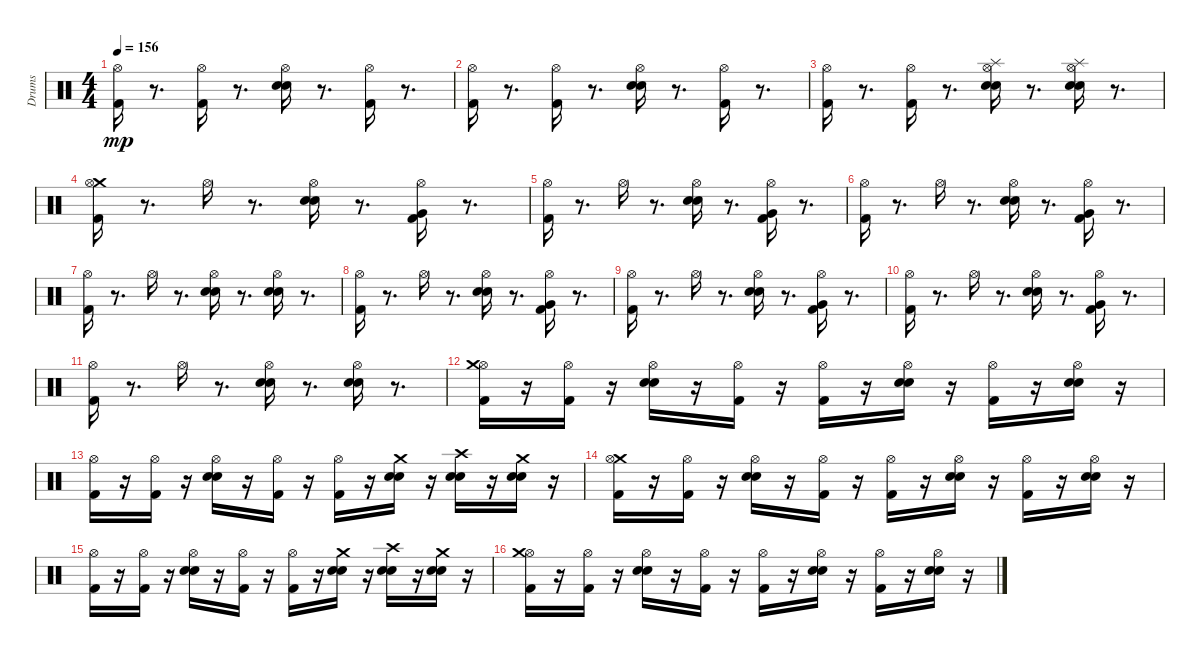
\track ("Drums" "Drums") {instrument percussion}
\staff {score}
\articulation defaults
\ts (4 4)
\tempo 156
\clef neutral
\ks c
("Hi-Hat (open)" "Kick (hit) 2").16{dy mp} r.8{d} ("Hi-Hat (open)" "Kick (hit) 2").16 r.8{d} ("Snare (hit) 2" "Electric Snare (hit)" "Hi-Hat (open)").16 r.8{d} ("Hi-Hat (open)" "Kick (hit) 2").16 r.8{d} |
("Kick (hit) 2" "Hi-Hat (open)").16 r.8{d} ("Hi-Hat (open)" "Kick (hit) 2").16 r.8{d} ("Electric Snare (hit)" "Hi-Hat (open)" "Snare (hit) 2").16 r.8{d} ("Hi-Hat (open)" "Kick (hit) 2").16 r.8{d} |
("Hi-Hat (open)" "Kick (hit) 2").16 r.8{d} ("Kick (hit) 2" "Hi-Hat (open)").16 r.8{d} ("Splash (hit)" "Hi-Hat (open)" "Snare (hit) 2" "Electric Snare (hit)").16 r.8{d} ("Splash (hit)" "Snare (hit) 2" "Hi-Hat (open)" "Electric Snare (hit)").16 r.8{d} |
("Kick (hit) 2" "Crash medium (hit)" "Hi-Hat (open)").16 r.8{d} "Hi-Hat (open)".16 r.8{d} ("Snare (hit) 2" "Electric Snare (hit)" "Hi-Hat (open)").16 r.8{d} ("Kick (hit) 2" "Hi-Hat (open)" "Very Low Tom (hit)").16 r.8{d} |
("Kick (hit) 2" "Hi-Hat (open)").16 r.8{d} "Hi-Hat (open)".16 r.8{d} ("Electric Snare (hit)" "Snare (hit) 2" "Hi-Hat (open)").16 r.8{d} ("Hi-Hat (open)" "Very Low Tom (hit)" "Kick (hit) 2").16 r.8{d} |
("Hi-Hat (open)" "Kick (hit) 2").16 r.8{d} "Hi-Hat (open)".16 r.8{d} ("Snare (hit) 2" "Hi-Hat (open)" "Electric Snare (hit)").16 r.8{d} ("Kick (hit) 2" "Very Low Tom (hit)" "Hi-Hat (open)").16 r.8{d} |
("Kick (hit) 2" "Hi-Hat (open)").16 r.8{d} "Hi-Hat (open)".16 r.8{d} ("Hi-Hat (open)" "Electric Snare (hit)" "Snare (hit) 2").16 r.8{d} ("Electric Snare (hit)" "Snare (hit) 2" "Hi-Hat (open)").16 r.8{d} |
("Kick (hit) 2" "Hi-Hat (open)").16 r.8{d} "Hi-Hat (open)".16 r.8{d} ("Snare (hit) 2" "Electric Snare (hit)" "Hi-Hat (open)").16 r.8{d} ("Hi-Hat (open)" "Kick (hit) 2" "Very Low Tom (hit)").16 r.8{d} |
("Kick (hit) 2" "Hi-Hat (open)").16 r.8{d} "Hi-Hat (open)".16 r.8{d} ("Snare (hit) 2" "Electric Snare (hit)" "Hi-Hat (open)").16 r.8{d} ("Very Low Tom (hit)" "Hi-Hat (open)" "Kick (hit) 2").16 r.8{d} |
("Hi-Hat (open)" "Kick (hit) 2").16 r.8{d} "Hi-Hat (open)".16 r.8{d} ("Electric Snare (hit)" "Hi-Hat (open)" "Snare (hit) 2").16 r.8{d} ("Very Low Tom (hit)" "Hi-Hat (open)" "Kick (hit) 2").16 r.8{d} |
("Kick (hit) 2" "Hi-Hat (open)").16 r.8{d} "Hi-Hat (open)".16 r.8{d} ("Electric Snare (hit)" "Snare (hit) 2" "Hi-Hat (open)").16 r.8{d} ("Snare (hit) 2" "Hi-Hat (open)" "Electric Snare (hit)").16 r.8{d} |
("Kick (hit) 2" "Hi-Hat (open)" "Crash medium (hit)").16 r.16 ("Hi-Hat (open)" "Kick (hit) 2").16 r.16 ("Hi-Hat (open)" "Snare (hit) 2" "Electric Snare (hit)").16 r.16 ("Kick (hit) 2" "Hi-Hat (open)").16 r.16 ("Hi-Hat (open)" "Kick (hit) 2").16 r.16 ("Snare (hit) 2" "Hi-Hat (open)" "Electric Snare (hit)").16 r.16 ("Kick (hit) 2" "Hi-Hat (open)").16 r.16 ("Hi-Hat (open)" "Electric Snare (hit)" "Snare (hit) 2").16 r.16 |
("Hi-Hat (open)" "Kick (hit) 2").16 r.16 ("Hi-Hat (open)" "Kick (hit) 2").16 r.16 ("Snare (hit) 2" "Electric Snare (hit)" "Hi-Hat (open)").16 r.16 ("Kick (hit) 2" "Hi-Hat (open)").16 r.16 ("Kick (hit) 2" "Hi-Hat (open)").16 r.16 ("Snare (hit) 2" "Electric Snare (hit)" "Crash medium (hit)").16 r.16 ("Crash high (hit)" "Electric Snare (hit)" "Snare (hit) 2").16 r.16 ("Snare (hit) 2" "Crash medium (hit)" "Electric Snare (hit)").16 r.16 |
("Crash medium (hit)" "Kick (hit) 2" "Hi-Hat (open)").16 r.16 ("Hi-Hat (open)" "Kick (hit) 2").16 r.16 ("Hi-Hat (open)" "Electric Snare (hit)" "Snare (hit) 2").16 r.16 ("Kick (hit) 2" "Hi-Hat (open)").16 r.16 ("Hi-Hat (open)" "Kick (hit) 2").16 r.16 ("Electric Snare (hit)" "Snare (hit) 2" "Hi-Hat (open)").16 r.16 ("Hi-Hat (open)" "Kick (hit) 2").16 r.16 ("Snare (hit) 2" "Electric Snare (hit)" "Hi-Hat (open)").16 r.16 |
("Kick (hit) 2" "Hi-Hat (open)").16 r.16 ("Hi-Hat (open)" "Kick (hit) 2").16 r.16 ("Snare (hit) 2" "Hi-Hat (open)" "Electric Snare (hit)").16 r.16 ("Kick (hit) 2" "Hi-Hat (open)").16 r.16 ("Kick (hit) 2" "Hi-Hat (open)").16 r.16 ("Crash medium (hit)" "Electric Snare (hit)" "Snare (hit) 2").16 r.16 ("Electric Snare (hit)" "Crash high (hit)" "Snare (hit) 2").16 r.16 ("Crash medium (hit)" "Electric Snare (hit)" "Snare (hit) 2").16 r.16 |
("Hi-Hat (open)" "Crash medium (hit)" "Kick (hit) 2").16 r.16 ("Hi-Hat (open)" "Kick (hit) 2").16 r.16 ("Snare (hit) 2" "Hi-Hat (open)" "Electric Snare (hit)").16 r.16 ("Kick (hit) 2" "Hi-Hat (open)").16 r.16 ("Kick (hit) 2" "Hi-Hat (open)").16 r.16 ("Electric Snare (hit)" "Hi-Hat (open)" "Snare (hit) 2").16 r.16 ("Hi-Hat (open)" "Kick (hit) 2").16 r.16 ("Hi-Hat (open)" "Electric Snare (hit)" "Snare (hit) 2").16 r.16
